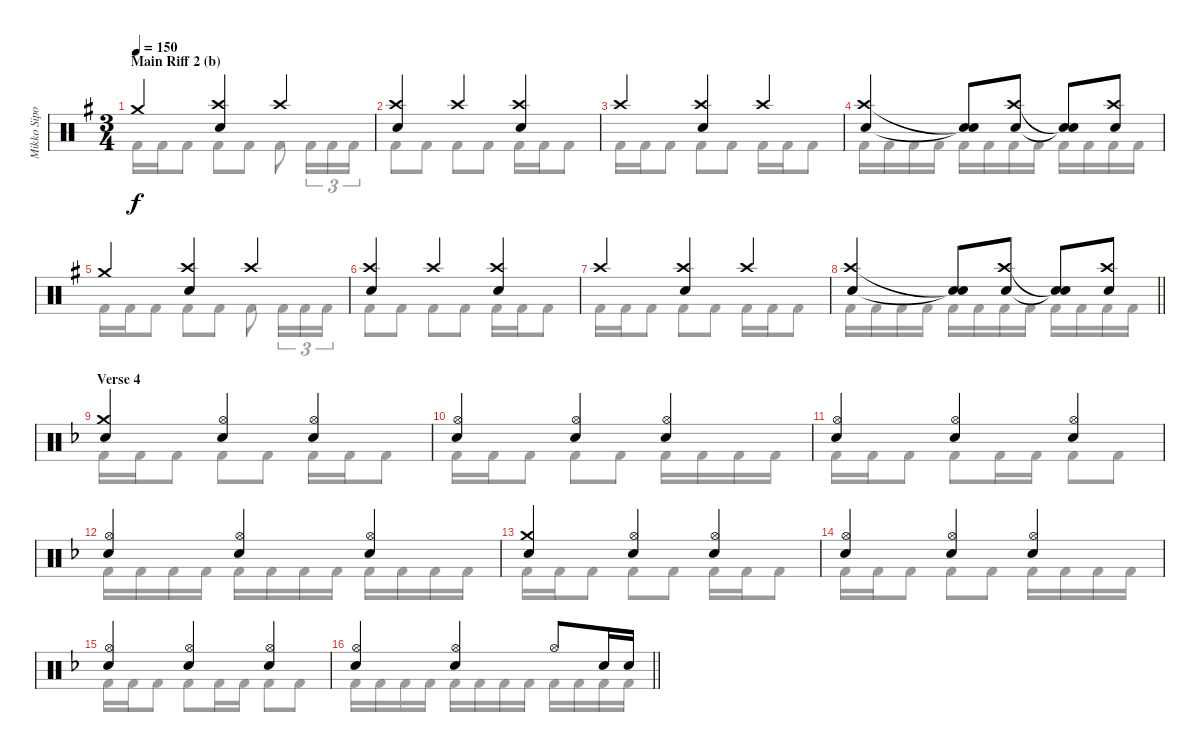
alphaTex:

\track ("Mikko Sipola (drums)" "Mikko Sipo") {instrument percussion}
\staff {score}
\articulation defaults
\voice
\ts (3 4)
\section ("" "Main Riff 2 (b)")
\tempo 150
\clef neutral
\ks eminor "Crash medium (hit)".4{dy f}
("Crash high (hit)" "Electric Snare (hit)").4 "Crash high (hit)".4 |
("Crash high (hit)" "Electric Snare (hit)").4 "Crash high (hit)".4 ("Crash high (hit)" "Electric Snare (hit)").4 |
"Crash high (hit)".4 ("Crash high (hit)" "Electric Snare (hit)").4 "Crash high (hit)".4 |
("Crash high (hit)" "Electric Snare (hit)").4 ("Snare (hit)"{t} "Snare (hit)"{t}).8 ("Crash high (hit)" "Electric Snare (hit)").8 ("Snare (hit)"{t} "Snare (hit)"{t}).8 ("Crash high (hit)" "Electric Snare (hit)").8 |
"Crash medium (hit)".4 ("Crash high (hit)" "Electric Snare (hit)").4 "Crash high (hit)".4 |
("Crash high (hit)" "Electric Snare (hit)").4 "Crash high (hit)".4 ("Crash high (hit)" "Electric Snare (hit)").4 |
"Crash high (hit)".4 ("Crash high (hit)" "Electric Snare (hit)").4 "Crash high (hit)".4 |
\barLineRight lightlight
("Crash high (hit)" "Electric Snare (hit)").4 ("Snare (hit)"{t} "Snare (hit)"{t}).8 ("Crash high (hit)" "Electric Snare (hit)").8 ("Snare (hit)"{t} "Snare (hit)"{t}).8 ("Crash high (hit)" "Electric Snare (hit)").8 |
\section ("" "Verse 4")
\ks dminor
("Crash medium (hit)" "Electric Snare (hit)").4 ("Hi-Hat (open)" "Electric Snare (hit)").4 ("Hi-Hat (open)" "Electric Snare (hit)").4 |
("Hi-Hat (open)" "Electric Snare (hit)").4 ("Hi-Hat (open)" "Electric Snare (hit)").4 ("Hi-Hat (open)" "Electric Snare (hit)").4 |
("Hi-Hat (open)" "Electric Snare (hit)").4 ("Hi-Hat (open)" "Electric Snare (hit)").4 ("Hi-Hat (open)" "Electric Snare (hit)").4 |
("Hi-Hat (open)" "Electric Snare (hit)").4 ("Hi-Hat (open)" "Electric Snare (hit)").4 ("Hi-Hat (open)" "Electric Snare (hit)").4 |
("Crash medium (hit)" "Electric Snare (hit)").4 ("Hi-Hat (open)" "Electric Snare (hit)").4 ("Hi-Hat (open)" "Electric Snare (hit)").4 |
("Hi-Hat (open)" "Electric Snare (hit)").4 ("Hi-Hat (open)" "Electric Snare (hit)").4 ("Hi-Hat (open)" "Electric Snare (hit)").4 |
("Hi-Hat (open)" "Electric Snare (hit)").4 ("Hi-Hat (open)" "Electric Snare (hit)").4 ("Hi-Hat (open)" "Electric Snare (hit)").4 |
\barLineRight lightlight
("Hi-Hat (open)" "Electric Snare (hit)").4 ("Hi-Hat (open)" "Electric Snare (hit)").4 "Hi-Hat (open)".8 "Electric Snare (hit)".16 "Electric Snare (hit)".16
\voice
\clef neutral
\ottava regular
\simile none
\ks eminor "Kick (hit) 2".16{dy f} "Kick (hit) 2".16 "Kick (hit) 2".8 "Kick (hit) 2".8 "Kick (hit) 2".8 "Kick (hit) 2".8 "Kick (hit) 2".16{tu (3 2)} "Kick (hit) 2".16{tu (3 2)} "Kick (hit) 2".16{tu (3 2)}
|
"Kick (hit) 2".8 "Kick (hit) 2".8 "Kick (hit) 2".8 "Kick (hit) 2".8 "Kick (hit) 2".16 "Kick (hit) 2".16 "Kick (hit) 2".8 |
"Kick (hit) 2".16 "Kick (hit) 2".16 "Kick (hit) 2".8 "Kick (hit) 2".8 "Kick (hit) 2".8 "Kick (hit) 2".16 "Kick (hit) 2".16 "Kick (hit) 2".8 |
"Kick (hit) 2".16 "Kick (hit) 2".16 "Kick (hit) 2".16 "Kick (hit) 2".16 "Kick (hit) 2".16 "Kick (hit) 2".16 "Kick (hit) 2".16 "Kick (hit) 2".16 "Kick (hit) 2".16 "Kick (hit) 2".16 "Kick (hit) 2".16 "Kick (hit) 2".16 |
"Kick (hit) 2".16 "Kick (hit) 2".16 "Kick (hit) 2".8 "Kick (hit) 2".8 "Kick (hit) 2".8 "Kick (hit) 2".8 "Kick (hit) 2".16{tu (3 2)} "Kick (hit) 2".16{tu (3 2)} "Kick (hit) 2".16{tu (3 2)} |
"Kick (hit) 2".8 "Kick (hit) 2".8 "Kick (hit) 2".8 "Kick (hit) 2".8 "Kick (hit) 2".16 "Kick (hit) 2".16 "Kick (hit) 2".8 |
"Kick (hit) 2".16 "Kick (hit) 2".16 "Kick (hit) 2".8 "Kick (hit) 2".8 "Kick (hit) 2".8 "Kick (hit) 2".16 "Kick (hit) 2".16 "Kick (hit) 2".8 |
\barLineRight lightlight "Kick (hit) 2".16 "Kick (hit) 2".16 "Kick (hit) 2".16 "Kick (hit) 2".16 "Kick (hit) 2".16 "Kick (hit) 2".16 "Kick (hit) 2".16 "Kick (hit) 2".16 "Kick (hit) 2".16 "Kick (hit) 2".16 "Kick (hit) 2".16 "Kick (hit) 2".16
|
\ks dminor "Kick (hit) 2".16 "Kick (hit) 2".16 "Kick (hit) 2".8 "Kick (hit) 2".8 "Kick (hit) 2".8 "Kick (hit) 2".16 "Kick (hit) 2".16 "Kick (hit) 2".8
|
"Kick (hit) 2".16 "Kick (hit) 2".16 "Kick (hit) 2".8 "Kick (hit) 2".8 "Kick (hit) 2".8 "Kick (hit) 2".16 "Kick (hit) 2".16 "Kick (hit) 2".16 "Kick (hit) 2".16 |
"Kick (hit) 2".16 "Kick (hit) 2".16 "Kick (hit) 2".8 "Kick (hit) 2".8 "Kick (hit) 2".16 "Kick (hit) 2".16 "Kick (hit) 2".8 "Kick (hit) 2".8 |
"Kick (hit) 2".16 "Kick (hit) 2".16 "Kick (hit) 2".16 "Kick (hit) 2".16 "Kick (hit) 2".16 "Kick (hit) 2".16 "Kick (hit) 2".16 "Kick (hit) 2".16 "Kick (hit) 2".16 "Kick (hit) 2".16 "Kick (hit) 2".16 "Kick (hit) 2".16 |
"Kick (hit) 2".16 "Kick (hit) 2".16 "Kick (hit) 2".8 "Kick (hit) 2".8 "Kick (hit) 2".8 "Kick (hit) 2".16 "Kick (hit) 2".16 "Kick (hit) 2".8 |
"Kick (hit) 2".16 "Kick (hit) 2".16 "Kick (hit) 2".8 "Kick (hit) 2".8 "Kick (hit) 2".8 "Kick (hit) 2".16 "Kick (hit) 2".16 "Kick (hit) 2".16 "Kick (hit) 2".16 |
"Kick (hit) 2".16 "Kick (hit) 2".16 "Kick (hit) 2".8 "Kick (hit) 2".8 "Kick (hit) 2".16 "Kick (hit) 2".16 "Kick (hit) 2".8 "Kick (hit) 2".8 |
\barLineRight lightlight "Kick (hit) 2".16 "Kick (hit) 2".16 "Kick (hit) 2".16 "Kick (hit) 2".16 "Kick (hit) 2".16 "Kick (hit) 2".16 "Kick (hit) 2".16 "Kick (hit) 2".16 "Kick (hit) 2".16 "Kick (hit) 2".16 "Kick (hit) 2".16 "Kick (hit) 2".16
